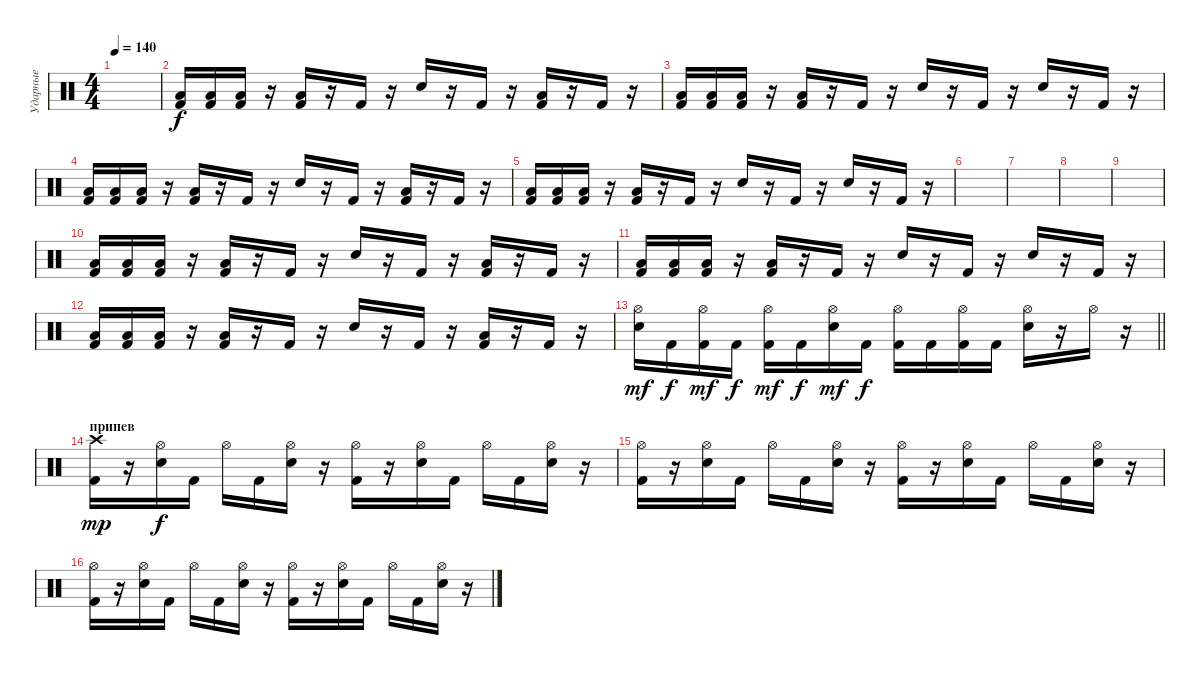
\track ("Ударные" "Ударные") {instrument percussion}
\staff {score}
\articulation defaults
\ts (4 4)
\tempo 140
\clef neutral
\ks c
|
("Low Floor Tom (hit)" "Kick (hit) 2").16 ("Low Floor Tom (hit)" "Kick (hit) 2").16 ("Low Floor Tom (hit)" "Kick (hit) 2").16 r.16 ("Low Floor Tom (hit)" "Kick (hit) 2").16 r.16 "Kick (hit) 2".16 r.16 "Electric Snare (hit)".16 r.16 "Kick (hit) 2".16 r.16 ("Low Floor Tom (hit)" "Kick (hit) 2").16 r.16 "Kick (hit) 2".16 r.16 |
("Low Floor Tom (hit)" "Kick (hit) 2").16 ("Low Floor Tom (hit)" "Kick (hit) 2").16 ("Low Floor Tom (hit)" "Kick (hit) 2").16 r.16 ("Low Floor Tom (hit)" "Kick (hit) 2").16 r.16 "Kick (hit) 2".16 r.16 "Electric Snare (hit)".16 r.16 "Kick (hit) 2".16 r.16 "Electric Snare (hit)".16 r.16 "Kick (hit) 2".16 r.16 |
("Low Floor Tom (hit)" "Kick (hit) 2").16 ("Low Floor Tom (hit)" "Kick (hit) 2").16 ("Low Floor Tom (hit)" "Kick (hit) 2").16 r.16 ("Low Floor Tom (hit)" "Kick (hit) 2").16 r.16 "Kick (hit) 2".16 r.16 "Electric Snare (hit)".16 r.16 "Kick (hit) 2".16 r.16 ("Low Floor Tom (hit)" "Kick (hit) 2").16 r.16 "Kick (hit) 2".16 r.16 |
("Low Floor Tom (hit)" "Kick (hit) 2").16 ("Low Floor Tom (hit)" "Kick (hit) 2").16 ("Low Floor Tom (hit)" "Kick (hit) 2").16 r.16 ("Low Floor Tom (hit)" "Kick (hit) 2").16 r.16 "Kick (hit) 2".16 r.16 "Electric Snare (hit)".16 r.16 "Kick (hit) 2".16 r.16 "Electric Snare (hit)".16 r.16 "Kick (hit) 2".16 r.16 |
|
|
|
|
("Low Floor Tom (hit)" "Kick (hit) 2").16 ("Low Floor Tom (hit)" "Kick (hit) 2").16 ("Low Floor Tom (hit)" "Kick (hit) 2").16 r.16 ("Low Floor Tom (hit)" "Kick (hit) 2").16 r.16 "Kick (hit) 2".16 r.16 "Electric Snare (hit)".16 r.16 "Kick (hit) 2".16 r.16 ("Low Floor Tom (hit)" "Kick (hit) 2").16 r.16 "Kick (hit) 2".16 r.16 |
("Low Floor Tom (hit)" "Kick (hit) 2").16 ("Low Floor Tom (hit)" "Kick (hit) 2").16 ("Low Floor Tom (hit)" "Kick (hit) 2").16 r.16 ("Low Floor Tom (hit)" "Kick (hit) 2").16 r.16 "Kick (hit) 2".16 r.16 "Electric Snare (hit)".16 r.16 "Kick (hit) 2".16 r.16 "Electric Snare (hit)".16 r.16 "Kick (hit) 2".16 r.16 |
("Low Floor Tom (hit)" "Kick (hit) 2").16 ("Low Floor Tom (hit)" "Kick (hit) 2").16 ("Low Floor Tom (hit)" "Kick (hit) 2").16 r.16 ("Low Floor Tom (hit)" "Kick (hit) 2").16 r.16 "Kick (hit) 2".16 r.16 "Electric Snare (hit)".16 r.16 "Kick (hit) 2".16 r.16 ("Low Floor Tom (hit)" "Kick (hit) 2").16 r.16 "Kick (hit) 2".16 r.16 |
\barLineRight lightlight
("Hi-Hat (open)" "Electric Snare (hit)").16{dy mf} "Kick (hit) 2".16{dy f} ("Hi-Hat (open)" "Kick (hit) 2").16{dy mf} "Kick (hit) 2".16{dy f} ("Hi-Hat (open)" "Kick (hit) 2").16{dy mf} "Kick (hit) 2".16{dy f} ("Hi-Hat (open)" "Electric Snare (hit)").16{dy mf} "Kick (hit) 2".16{dy f} ("Hi-Hat (open)" "Kick (hit) 2").16 "Kick (hit) 2".16 ("Hi-Hat (open)" "Kick (hit) 2").16 "Kick (hit) 2".16 ("Hi-Hat (open)" "Electric Snare (hit)").16 r.16 "Hi-Hat (open)".16 r.16 |
\section ("" "припев")
("Crash high (hit)" "Kick (hit) 2").16{dy mp} r.16 ("Hi-Hat (open)" "Electric Snare (hit)").16{dy f} "Kick (hit) 2".16 "Hi-Hat (open)".16 "Kick (hit) 2".16 ("Hi-Hat (open)" "Electric Snare (hit)").16 r.16 ("Hi-Hat (open)" "Kick (hit) 2").16 r.16 ("Hi-Hat (open)" "Electric Snare (hit)").16 "Kick (hit) 2".16 "Hi-Hat (open)".16 "Kick (hit) 2".16 ("Hi-Hat (open)" "Electric Snare (hit)").16 r.16 |
("Hi-Hat (open)" "Kick (hit) 2").16 r.16 ("Hi-Hat (open)" "Electric Snare (hit)").16 "Kick (hit) 2".16 "Hi-Hat (open)".16 "Kick (hit) 2".16 ("Hi-Hat (open)" "Electric Snare (hit)").16 r.16 ("Hi-Hat (open)" "Kick (hit) 2").16 r.16 ("Hi-Hat (open)" "Electric Snare (hit)").16 "Kick (hit) 2".16 "Hi-Hat (open)".16 "Kick (hit) 2".16 ("Hi-Hat (open)" "Electric Snare (hit)").16 r.16 |
("Hi-Hat (open)" "Kick (hit) 2").16 r.16 ("Hi-Hat (open)" "Electric Snare (hit)").16 "Kick (hit) 2".16 "Hi-Hat (open)".16 "Kick (hit) 2".16 ("Hi-Hat (open)" "Electric Snare (hit)").16 r.16 ("Hi-Hat (open)" "Kick (hit) 2").16 r.16 ("Hi-Hat (open)" "Electric Snare (hit)").16 "Kick (hit) 2".16 "Hi-Hat (open)".16 "Kick (hit) 2".16 ("Hi-Hat (open)" "Electric Snare (hit)").16 r.16
